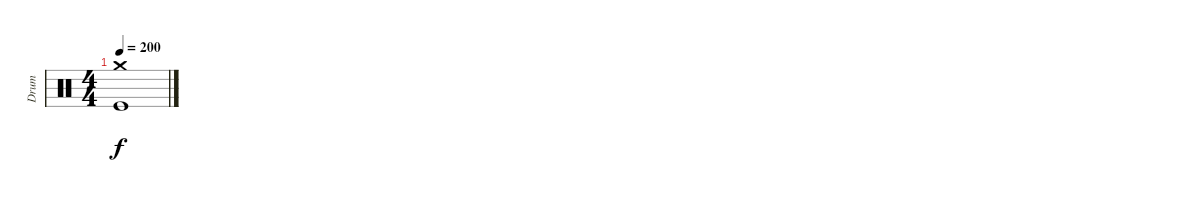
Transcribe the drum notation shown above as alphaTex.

\track ("Drum" "Drum") {instrument percussion}
\staff {score}
\articulation defaults
\ts (4 4)
\tempo 200
\clef neutral
\ks c
("Kick (hit)" "Crash medium (hit)").1{dy f}
